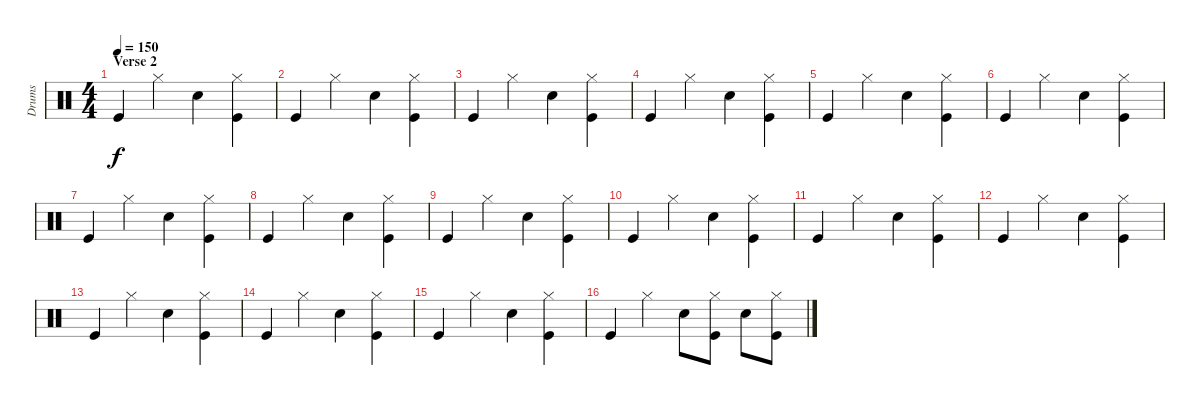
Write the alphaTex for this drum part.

\track ("Drums" "Drums") {instrument percussion}
\staff {score}
\articulation defaults
\ts (4 4)
\section ("" "Verse 2")
\tempo 150
\clef neutral
\ks c "Kick (hit)".4{dy f} "Hi-Hat (closed)".4 "Electric Snare (hit)".4
("Hi-Hat (closed)" "Kick (hit)").4 |
"Kick (hit)".4 "Hi-Hat (closed)".4 "Electric Snare (hit)".4 ("Hi-Hat (closed)" "Kick (hit)").4 |
"Kick (hit)".4 "Hi-Hat (closed)".4 "Electric Snare (hit)".4 ("Hi-Hat (closed)" "Kick (hit)").4 |
"Kick (hit)".4 "Hi-Hat (closed)".4 "Electric Snare (hit)".4 ("Hi-Hat (closed)" "Kick (hit)").4 |
"Kick (hit)".4 "Hi-Hat (closed)".4 "Electric Snare (hit)".4 ("Hi-Hat (closed)" "Kick (hit)").4 |
"Kick (hit)".4 "Hi-Hat (closed)".4 "Electric Snare (hit)".4 ("Hi-Hat (closed)" "Kick (hit)").4 |
"Kick (hit)".4 "Hi-Hat (closed)".4 "Electric Snare (hit)".4 ("Hi-Hat (closed)" "Kick (hit)").4 |
"Kick (hit)".4 "Hi-Hat (closed)".4 "Electric Snare (hit)".4 ("Hi-Hat (closed)" "Kick (hit)").4 |
"Kick (hit)".4 "Hi-Hat (closed)".4 "Electric Snare (hit)".4 ("Hi-Hat (closed)" "Kick (hit)").4 |
"Kick (hit)".4 "Hi-Hat (closed)".4 "Electric Snare (hit)".4 ("Hi-Hat (closed)" "Kick (hit)").4 |
"Kick (hit)".4 "Hi-Hat (closed)".4 "Electric Snare (hit)".4 ("Hi-Hat (closed)" "Kick (hit)").4 |
"Kick (hit)".4 "Hi-Hat (closed)".4 "Electric Snare (hit)".4 ("Hi-Hat (closed)" "Kick (hit)").4 |
"Kick (hit)".4 "Hi-Hat (closed)".4 "Electric Snare (hit)".4 ("Hi-Hat (closed)" "Kick (hit)").4 |
"Kick (hit)".4 "Hi-Hat (closed)".4 "Electric Snare (hit)".4 ("Hi-Hat (closed)" "Kick (hit)").4 |
"Kick (hit)".4 "Hi-Hat (closed)".4 "Electric Snare (hit)".4 ("Hi-Hat (closed)" "Kick (hit)").4 |
"Kick (hit)".4 "Hi-Hat (closed)".4 "Electric Snare (hit)".8 ("Hi-Hat (closed)" "Kick (hit)").8 "Electric Snare (hit)".8 ("Hi-Hat (closed)" "Kick (hit)").8
